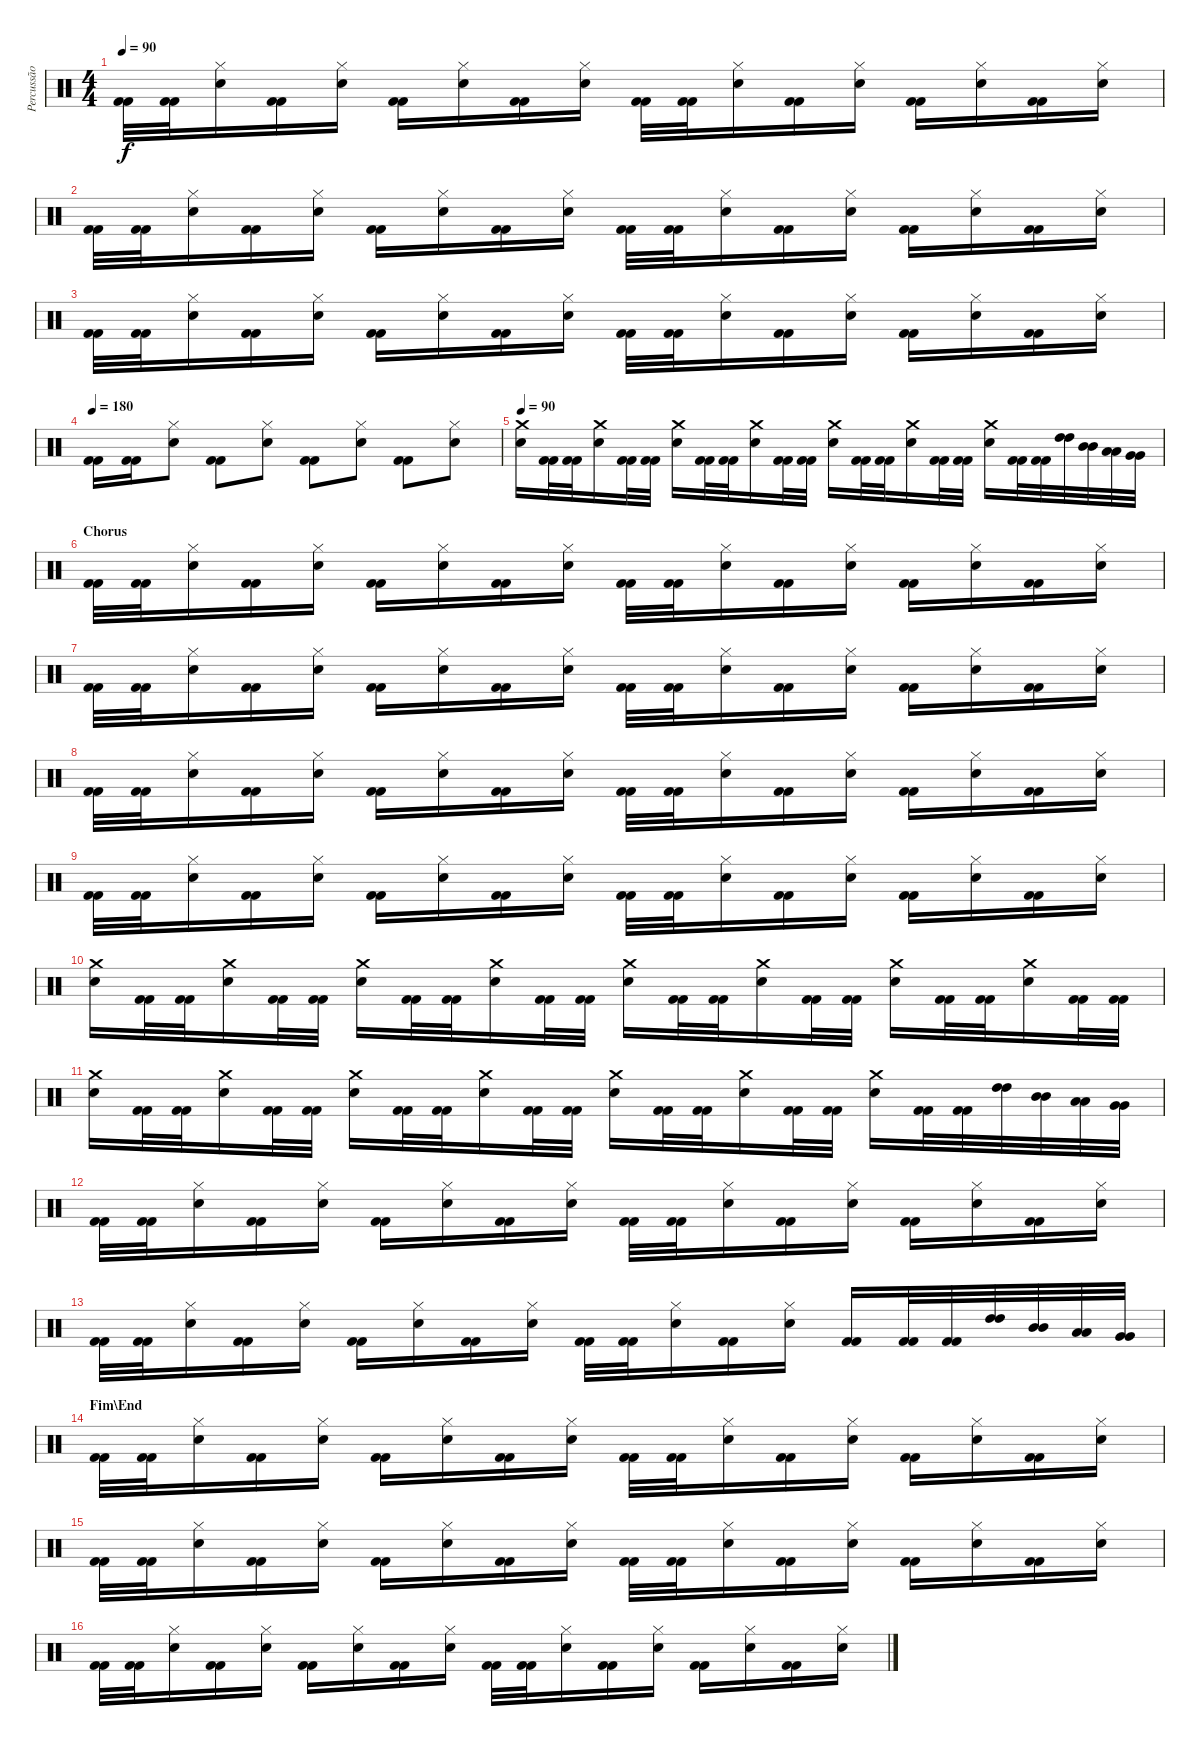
\track ("Percussão" "Percussão") {instrument percussion}
\staff {score}
\articulation defaults
\ts (4 4)
\tempo 90
\clef neutral
\ks c
("Kick (hit) 2" "Kick (hit) 2").32{dy f} ("Kick (hit) 2" "Kick (hit) 2").32 ("Hi-Hat (closed)" "Snare (hit) 2").16 ("Kick (hit) 2" "Kick (hit) 2").16 ("Hi-Hat (closed)" "Snare (hit) 2").16 ("Kick (hit) 2" "Kick (hit) 2").16 ("Hi-Hat (closed)" "Snare (hit) 2").16 ("Kick (hit) 2" "Kick (hit) 2").16 ("Hi-Hat (closed)" "Snare (hit) 2").16 ("Kick (hit) 2" "Kick (hit) 2").32 ("Kick (hit) 2" "Kick (hit) 2").32 ("Hi-Hat (closed)" "Snare (hit) 2").16 ("Kick (hit) 2" "Kick (hit) 2").16 ("Hi-Hat (closed)" "Snare (hit) 2").16 ("Kick (hit) 2" "Kick (hit) 2").16 ("Hi-Hat (closed)" "Snare (hit) 2").16 ("Kick (hit) 2" "Kick (hit) 2").16 ("Hi-Hat (closed)" "Snare (hit) 2").16 |
("Kick (hit) 2" "Kick (hit) 2").32 ("Kick (hit) 2" "Kick (hit) 2").32 ("Hi-Hat (closed)" "Snare (hit) 2").16 ("Kick (hit) 2" "Kick (hit) 2").16 ("Hi-Hat (closed)" "Snare (hit) 2").16 ("Kick (hit) 2" "Kick (hit) 2").16 ("Hi-Hat (closed)" "Snare (hit) 2").16 ("Kick (hit) 2" "Kick (hit) 2").16 ("Hi-Hat (closed)" "Snare (hit) 2").16 ("Kick (hit) 2" "Kick (hit) 2").32 ("Kick (hit) 2" "Kick (hit) 2").32 ("Hi-Hat (closed)" "Snare (hit) 2").16 ("Kick (hit) 2" "Kick (hit) 2").16 ("Hi-Hat (closed)" "Snare (hit) 2").16 ("Kick (hit) 2" "Kick (hit) 2").16 ("Hi-Hat (closed)" "Snare (hit) 2").16 ("Kick (hit) 2" "Kick (hit) 2").16 ("Hi-Hat (closed)" "Snare (hit) 2").16 |
("Kick (hit) 2" "Kick (hit) 2").32 ("Kick (hit) 2" "Kick (hit) 2").32 ("Hi-Hat (closed)" "Snare (hit) 2").16 ("Kick (hit) 2" "Kick (hit) 2").16 ("Hi-Hat (closed)" "Snare (hit) 2").16 ("Kick (hit) 2" "Kick (hit) 2").16 ("Hi-Hat (closed)" "Snare (hit) 2").16 ("Kick (hit) 2" "Kick (hit) 2").16 ("Hi-Hat (closed)" "Snare (hit) 2").16 ("Kick (hit) 2" "Kick (hit) 2").32 ("Kick (hit) 2" "Kick (hit) 2").32 ("Hi-Hat (closed)" "Snare (hit) 2").16 ("Kick (hit) 2" "Kick (hit) 2").16 ("Hi-Hat (closed)" "Snare (hit) 2").16 ("Kick (hit) 2" "Kick (hit) 2").16 ("Hi-Hat (closed)" "Snare (hit) 2").16 ("Kick (hit) 2" "Kick (hit) 2").16 ("Hi-Hat (closed)" "Snare (hit) 2").16 |
\tempo 180
("Kick (hit) 2" "Kick (hit) 2").16 ("Kick (hit) 2" "Kick (hit) 2").16 ("Hi-Hat (closed)" "Snare (hit) 2").8 ("Kick (hit) 2" "Kick (hit) 2").8 ("Hi-Hat (closed)" "Snare (hit) 2").8 ("Kick (hit) 2" "Kick (hit) 2").8 ("Hi-Hat (closed)" "Snare (hit) 2").8 ("Kick (hit) 2" "Kick (hit) 2").8 ("Hi-Hat (closed)" "Snare (hit) 2").8 |
\tempo 90
("Crash medium (hit)" "Snare (hit) 2").16 ("Kick (hit) 2" "Kick (hit) 2").32 ("Kick (hit) 2" "Kick (hit) 2").32 ("Crash medium (hit)" "Snare (hit) 2").16 ("Kick (hit) 2" "Kick (hit) 2").32 ("Kick (hit) 2" "Kick (hit) 2").32 ("Crash medium (hit)" "Snare (hit) 2").16 ("Kick (hit) 2" "Kick (hit) 2").32 ("Kick (hit) 2" "Kick (hit) 2").32 ("Crash medium (hit)" "Snare (hit) 2").16 ("Kick (hit) 2" "Kick (hit) 2").32 ("Kick (hit) 2" "Kick (hit) 2").32 ("Crash medium (hit)" "Snare (hit) 2").16 ("Kick (hit) 2" "Kick (hit) 2").32 ("Kick (hit) 2" "Kick (hit) 2").32 ("Crash medium (hit)" "Snare (hit) 2").16 ("Kick (hit) 2" "Kick (hit) 2").32 ("Kick (hit) 2" "Kick (hit) 2").32 ("Crash medium (hit)" "Snare (hit) 2").16 ("Kick (hit) 2" "Kick (hit) 2").32 ("Kick (hit) 2" "Kick (hit) 2").32 ("High Tom (hit)" "High Tom (hit)").32 ("Mid Tom (hit)" "Mid Tom (hit)").32 ("Low Tom (hit)" "Low Tom (hit)").32 ("Very Low Tom (hit)" "Very Low Tom (hit)").32 |
\section ("" "Chorus")
("Kick (hit) 2" "Kick (hit) 2").32 ("Kick (hit) 2" "Kick (hit) 2").32 ("Hi-Hat (closed)" "Snare (hit) 2").16 ("Kick (hit) 2" "Kick (hit) 2").16 ("Hi-Hat (closed)" "Snare (hit) 2").16 ("Kick (hit) 2" "Kick (hit) 2").16 ("Hi-Hat (closed)" "Snare (hit) 2").16 ("Kick (hit) 2" "Kick (hit) 2").16 ("Hi-Hat (closed)" "Snare (hit) 2").16 ("Kick (hit) 2" "Kick (hit) 2").32 ("Kick (hit) 2" "Kick (hit) 2").32 ("Hi-Hat (closed)" "Snare (hit) 2").16 ("Kick (hit) 2" "Kick (hit) 2").16 ("Hi-Hat (closed)" "Snare (hit) 2").16 ("Kick (hit) 2" "Kick (hit) 2").16 ("Hi-Hat (closed)" "Snare (hit) 2").16 ("Kick (hit) 2" "Kick (hit) 2").16 ("Hi-Hat (closed)" "Snare (hit) 2").16 |
("Kick (hit) 2" "Kick (hit) 2").32 ("Kick (hit) 2" "Kick (hit) 2").32 ("Hi-Hat (closed)" "Snare (hit) 2").16 ("Kick (hit) 2" "Kick (hit) 2").16 ("Hi-Hat (closed)" "Snare (hit) 2").16 ("Kick (hit) 2" "Kick (hit) 2").16 ("Hi-Hat (closed)" "Snare (hit) 2").16 ("Kick (hit) 2" "Kick (hit) 2").16 ("Hi-Hat (closed)" "Snare (hit) 2").16 ("Kick (hit) 2" "Kick (hit) 2").32 ("Kick (hit) 2" "Kick (hit) 2").32 ("Hi-Hat (closed)" "Snare (hit) 2").16 ("Kick (hit) 2" "Kick (hit) 2").16 ("Hi-Hat (closed)" "Snare (hit) 2").16 ("Kick (hit) 2" "Kick (hit) 2").16 ("Hi-Hat (closed)" "Snare (hit) 2").16 ("Kick (hit) 2" "Kick (hit) 2").16 ("Hi-Hat (closed)" "Snare (hit) 2").16 |
("Kick (hit) 2" "Kick (hit) 2").32 ("Kick (hit) 2" "Kick (hit) 2").32 ("Hi-Hat (closed)" "Snare (hit) 2").16 ("Kick (hit) 2" "Kick (hit) 2").16 ("Hi-Hat (closed)" "Snare (hit) 2").16 ("Kick (hit) 2" "Kick (hit) 2").16 ("Hi-Hat (closed)" "Snare (hit) 2").16 ("Kick (hit) 2" "Kick (hit) 2").16 ("Hi-Hat (closed)" "Snare (hit) 2").16 ("Kick (hit) 2" "Kick (hit) 2").32 ("Kick (hit) 2" "Kick (hit) 2").32 ("Hi-Hat (closed)" "Snare (hit) 2").16 ("Kick (hit) 2" "Kick (hit) 2").16 ("Hi-Hat (closed)" "Snare (hit) 2").16 ("Kick (hit) 2" "Kick (hit) 2").16 ("Hi-Hat (closed)" "Snare (hit) 2").16 ("Kick (hit) 2" "Kick (hit) 2").16 ("Hi-Hat (closed)" "Snare (hit) 2").16 |
("Kick (hit) 2" "Kick (hit) 2").32 ("Kick (hit) 2" "Kick (hit) 2").32 ("Hi-Hat (closed)" "Snare (hit) 2").16 ("Kick (hit) 2" "Kick (hit) 2").16 ("Hi-Hat (closed)" "Snare (hit) 2").16 ("Kick (hit) 2" "Kick (hit) 2").16 ("Hi-Hat (closed)" "Snare (hit) 2").16 ("Kick (hit) 2" "Kick (hit) 2").16 ("Hi-Hat (closed)" "Snare (hit) 2").16 ("Kick (hit) 2" "Kick (hit) 2").32 ("Kick (hit) 2" "Kick (hit) 2").32 ("Hi-Hat (closed)" "Snare (hit) 2").16 ("Kick (hit) 2" "Kick (hit) 2").16 ("Hi-Hat (closed)" "Snare (hit) 2").16 ("Kick (hit) 2" "Kick (hit) 2").16 ("Hi-Hat (closed)" "Snare (hit) 2").16 ("Kick (hit) 2" "Kick (hit) 2").16 ("Hi-Hat (closed)" "Snare (hit) 2").16 |
("Crash medium (hit)" "Snare (hit) 2").16 ("Kick (hit) 2" "Kick (hit) 2").32 ("Kick (hit) 2" "Kick (hit) 2").32 ("Crash medium (hit)" "Snare (hit) 2").16 ("Kick (hit) 2" "Kick (hit) 2").32 ("Kick (hit) 2" "Kick (hit) 2").32 ("Crash medium (hit)" "Snare (hit) 2").16 ("Kick (hit) 2" "Kick (hit) 2").32 ("Kick (hit) 2" "Kick (hit) 2").32 ("Crash medium (hit)" "Snare (hit) 2").16 ("Kick (hit) 2" "Kick (hit) 2").32 ("Kick (hit) 2" "Kick (hit) 2").32 ("Crash medium (hit)" "Snare (hit) 2").16 ("Kick (hit) 2" "Kick (hit) 2").32 ("Kick (hit) 2" "Kick (hit) 2").32 ("Crash medium (hit)" "Snare (hit) 2").16 ("Kick (hit) 2" "Kick (hit) 2").32 ("Kick (hit) 2" "Kick (hit) 2").32 ("Crash medium (hit)" "Snare (hit) 2").16 ("Kick (hit) 2" "Kick (hit) 2").32 ("Kick (hit) 2" "Kick (hit) 2").32 ("Crash medium (hit)" "Snare (hit) 2").16 ("Kick (hit) 2" "Kick (hit) 2").32 ("Kick (hit) 2" "Kick (hit) 2").32 |
("Crash medium (hit)" "Snare (hit) 2").16 ("Kick (hit) 2" "Kick (hit) 2").32 ("Kick (hit) 2" "Kick (hit) 2").32 ("Crash medium (hit)" "Snare (hit) 2").16 ("Kick (hit) 2" "Kick (hit) 2").32 ("Kick (hit) 2" "Kick (hit) 2").32 ("Crash medium (hit)" "Snare (hit) 2").16 ("Kick (hit) 2" "Kick (hit) 2").32 ("Kick (hit) 2" "Kick (hit) 2").32 ("Crash medium (hit)" "Snare (hit) 2").16 ("Kick (hit) 2" "Kick (hit) 2").32 ("Kick (hit) 2" "Kick (hit) 2").32 ("Crash medium (hit)" "Snare (hit) 2").16 ("Kick (hit) 2" "Kick (hit) 2").32 ("Kick (hit) 2" "Kick (hit) 2").32 ("Crash medium (hit)" "Snare (hit) 2").16 ("Kick (hit) 2" "Kick (hit) 2").32 ("Kick (hit) 2" "Kick (hit) 2").32 ("Crash medium (hit)" "Snare (hit) 2").16 ("Kick (hit) 2" "Kick (hit) 2").32 ("Kick (hit) 2" "Kick (hit) 2").32 ("High Tom (hit)" "High Tom (hit)").32 ("Mid Tom (hit)" "Mid Tom (hit)").32 ("Low Tom (hit)" "Low Tom (hit)").32 ("Very Low Tom (hit)" "Very Low Tom (hit)").32 |
("Kick (hit) 2" "Kick (hit) 2").32 ("Kick (hit) 2" "Kick (hit) 2").32 ("Hi-Hat (closed)" "Snare (hit) 2").16 ("Kick (hit) 2" "Kick (hit) 2").16 ("Hi-Hat (closed)" "Snare (hit) 2").16 ("Kick (hit) 2" "Kick (hit) 2").16 ("Hi-Hat (closed)" "Snare (hit) 2").16 ("Kick (hit) 2" "Kick (hit) 2").16 ("Hi-Hat (closed)" "Snare (hit) 2").16 ("Kick (hit) 2" "Kick (hit) 2").32 ("Kick (hit) 2" "Kick (hit) 2").32 ("Hi-Hat (closed)" "Snare (hit) 2").16 ("Kick (hit) 2" "Kick (hit) 2").16 ("Hi-Hat (closed)" "Snare (hit) 2").16 ("Kick (hit) 2" "Kick (hit) 2").16 ("Hi-Hat (closed)" "Snare (hit) 2").16 ("Kick (hit) 2" "Kick (hit) 2").16 ("Hi-Hat (closed)" "Snare (hit) 2").16 |
("Kick (hit) 2" "Kick (hit) 2").32 ("Kick (hit) 2" "Kick (hit) 2").32 ("Hi-Hat (closed)" "Snare (hit) 2").16 ("Kick (hit) 2" "Kick (hit) 2").16 ("Hi-Hat (closed)" "Snare (hit) 2").16 ("Kick (hit) 2" "Kick (hit) 2").16 ("Hi-Hat (closed)" "Snare (hit) 2").16 ("Kick (hit) 2" "Kick (hit) 2").16 ("Hi-Hat (closed)" "Snare (hit) 2").16 ("Kick (hit) 2" "Kick (hit) 2").32 ("Kick (hit) 2" "Kick (hit) 2").32 ("Hi-Hat (closed)" "Snare (hit) 2").16 ("Kick (hit) 2" "Kick (hit) 2").16 ("Hi-Hat (closed)" "Snare (hit) 2").16 ("Kick (hit) 2" "Kick (hit) 2").16 ("Kick (hit) 2" "Kick (hit) 2").32 ("Kick (hit) 2" "Kick (hit) 2").32 ("High Tom (hit)" "High Tom (hit)").32 ("Mid Tom (hit)" "Mid Tom (hit)").32 ("Low Tom (hit)" "Low Tom (hit)").32 ("Very Low Tom (hit)" "Very Low Tom (hit)").32 |
\section ("" "Fim\\End")
("Kick (hit) 2" "Kick (hit) 2").32 ("Kick (hit) 2" "Kick (hit) 2").32 ("Hi-Hat (closed)" "Snare (hit) 2").16 ("Kick (hit) 2" "Kick (hit) 2").16 ("Hi-Hat (closed)" "Snare (hit) 2").16 ("Kick (hit) 2" "Kick (hit) 2").16 ("Hi-Hat (closed)" "Snare (hit) 2").16 ("Kick (hit) 2" "Kick (hit) 2").16 ("Hi-Hat (closed)" "Snare (hit) 2").16 ("Kick (hit) 2" "Kick (hit) 2").32 ("Kick (hit) 2" "Kick (hit) 2").32 ("Hi-Hat (closed)" "Snare (hit) 2").16 ("Kick (hit) 2" "Kick (hit) 2").16 ("Hi-Hat (closed)" "Snare (hit) 2").16 ("Kick (hit) 2" "Kick (hit) 2").16 ("Hi-Hat (closed)" "Snare (hit) 2").16 ("Kick (hit) 2" "Kick (hit) 2").16 ("Hi-Hat (closed)" "Snare (hit) 2").16 |
("Kick (hit) 2" "Kick (hit) 2").32 ("Kick (hit) 2" "Kick (hit) 2").32 ("Hi-Hat (closed)" "Snare (hit) 2").16 ("Kick (hit) 2" "Kick (hit) 2").16 ("Hi-Hat (closed)" "Snare (hit) 2").16 ("Kick (hit) 2" "Kick (hit) 2").16 ("Hi-Hat (closed)" "Snare (hit) 2").16 ("Kick (hit) 2" "Kick (hit) 2").16 ("Hi-Hat (closed)" "Snare (hit) 2").16 ("Kick (hit) 2" "Kick (hit) 2").32 ("Kick (hit) 2" "Kick (hit) 2").32 ("Hi-Hat (closed)" "Snare (hit) 2").16 ("Kick (hit) 2" "Kick (hit) 2").16 ("Hi-Hat (closed)" "Snare (hit) 2").16 ("Kick (hit) 2" "Kick (hit) 2").16 ("Hi-Hat (closed)" "Snare (hit) 2").16 ("Kick (hit) 2" "Kick (hit) 2").16 ("Hi-Hat (closed)" "Snare (hit) 2").16 |
("Kick (hit) 2" "Kick (hit) 2").32 ("Kick (hit) 2" "Kick (hit) 2").32 ("Hi-Hat (closed)" "Snare (hit) 2").16 ("Kick (hit) 2" "Kick (hit) 2").16 ("Hi-Hat (closed)" "Snare (hit) 2").16 ("Kick (hit) 2" "Kick (hit) 2").16 ("Hi-Hat (closed)" "Snare (hit) 2").16 ("Kick (hit) 2" "Kick (hit) 2").16 ("Hi-Hat (closed)" "Snare (hit) 2").16 ("Kick (hit) 2" "Kick (hit) 2").32 ("Kick (hit) 2" "Kick (hit) 2").32 ("Hi-Hat (closed)" "Snare (hit) 2").16 ("Kick (hit) 2" "Kick (hit) 2").16 ("Hi-Hat (closed)" "Snare (hit) 2").16 ("Kick (hit) 2" "Kick (hit) 2").16 ("Hi-Hat (closed)" "Snare (hit) 2").16 ("Kick (hit) 2" "Kick (hit) 2").16 ("Hi-Hat (closed)" "Snare (hit) 2").16
